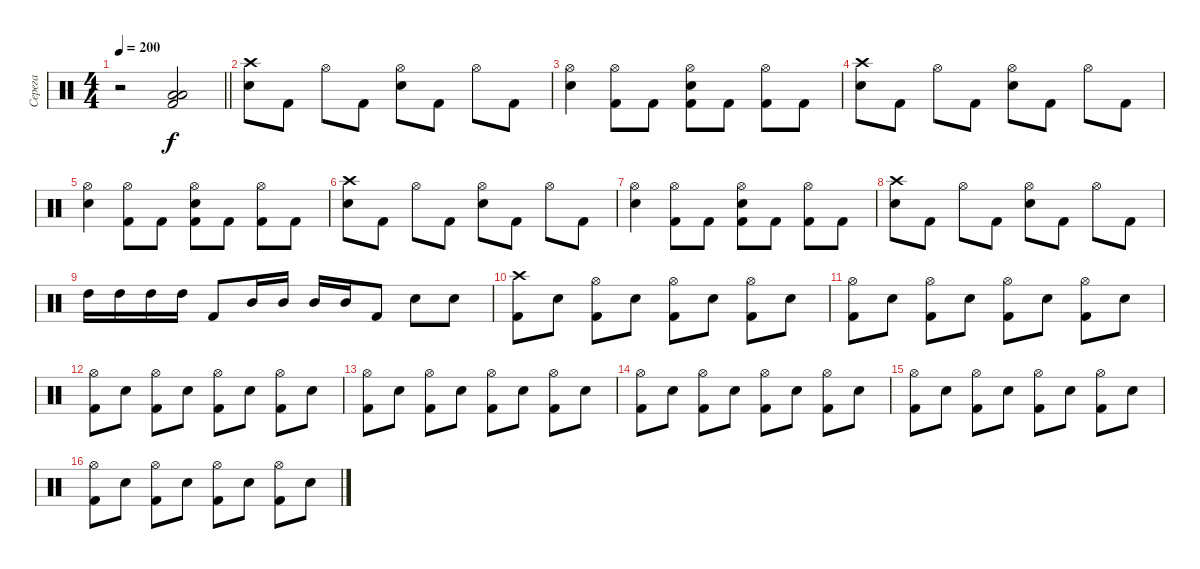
\track ("Серега" "Серега") {instrument percussion}
\staff {score}
\articulation defaults
\ts (4 4)
\tempo 200
\clef neutral
\barLineRight lightlight
\ks c
r.2{dy f} ("Low Tom (hit)" "Low Floor Tom (hit)" "Kick (hit) 2").2 |
("Crash high (hit)" "Electric Snare (hit)").8 "Kick (hit) 2".8 "Hi-Hat (open)".8 "Kick (hit) 2".8 ("Hi-Hat (open)" "Electric Snare (hit)").8 "Kick (hit) 2".8 "Hi-Hat (open)".8 "Kick (hit) 2".8 |
("Hi-Hat (open)" "Electric Snare (hit)").4 ("Hi-Hat (open)" "Kick (hit) 2").8 "Kick (hit) 2".8 ("Hi-Hat (open)" "Electric Snare (hit)" "Kick (hit) 2").8 "Kick (hit) 2".8 ("Hi-Hat (open)" "Kick (hit) 2").8 "Kick (hit) 2".8 |
("Crash high (hit)" "Electric Snare (hit)").8 "Kick (hit) 2".8 "Hi-Hat (open)".8 "Kick (hit) 2".8 ("Hi-Hat (open)" "Electric Snare (hit)").8 "Kick (hit) 2".8 "Hi-Hat (open)".8 "Kick (hit) 2".8 |
("Hi-Hat (open)" "Electric Snare (hit)").4 ("Hi-Hat (open)" "Kick (hit) 2").8 "Kick (hit) 2".8 ("Hi-Hat (open)" "Electric Snare (hit)" "Kick (hit) 2").8 "Kick (hit) 2".8 ("Hi-Hat (open)" "Kick (hit) 2").8 "Kick (hit) 2".8 |
("Crash high (hit)" "Electric Snare (hit)").8 "Kick (hit) 2".8 "Hi-Hat (open)".8 "Kick (hit) 2".8 ("Hi-Hat (open)" "Electric Snare (hit)").8 "Kick (hit) 2".8 "Hi-Hat (open)".8 "Kick (hit) 2".8 |
("Hi-Hat (open)" "Electric Snare (hit)").4 ("Hi-Hat (open)" "Kick (hit) 2").8 "Kick (hit) 2".8 ("Hi-Hat (open)" "Electric Snare (hit)" "Kick (hit) 2").8 "Kick (hit) 2".8 ("Hi-Hat (open)" "Kick (hit) 2").8 "Kick (hit) 2".8 |
("Crash high (hit)" "Electric Snare (hit)").8 "Kick (hit) 2".8 "Hi-Hat (open)".8 "Kick (hit) 2".8 ("Hi-Hat (open)" "Electric Snare (hit)").8 "Kick (hit) 2".8 "Hi-Hat (open)".8 "Kick (hit) 2".8 |
"High Tom (hit)".16 "High Tom (hit)".16 "High Tom (hit)".16 "High Tom (hit)".16 "Kick (hit) 2".8 "Mid Tom (hit)".16 "Mid Tom (hit)".16 "Mid Tom (hit)".16 "Mid Tom (hit)".16 "Kick (hit) 2".8 "Electric Snare (hit)".8 "Electric Snare (hit)".8 |
("Crash high (hit)" "Kick (hit) 2").8 "Electric Snare (hit)".8 ("Hi-Hat (open)" "Kick (hit) 2").8 "Electric Snare (hit)".8 ("Hi-Hat (open)" "Kick (hit) 2").8 "Electric Snare (hit)".8 ("Hi-Hat (open)" "Kick (hit) 2").8 "Electric Snare (hit)".8 |
("Hi-Hat (open)" "Kick (hit) 2").8 "Electric Snare (hit)".8 ("Hi-Hat (open)" "Kick (hit) 2").8 "Electric Snare (hit)".8 ("Hi-Hat (open)" "Kick (hit) 2").8 "Electric Snare (hit)".8 ("Hi-Hat (open)" "Kick (hit) 2").8 "Electric Snare (hit)".8 |
("Hi-Hat (open)" "Kick (hit) 2").8 "Electric Snare (hit)".8 ("Hi-Hat (open)" "Kick (hit) 2").8 "Electric Snare (hit)".8 ("Hi-Hat (open)" "Kick (hit) 2").8 "Electric Snare (hit)".8 ("Hi-Hat (open)" "Kick (hit) 2").8 "Electric Snare (hit)".8 |
("Hi-Hat (open)" "Kick (hit) 2").8 "Electric Snare (hit)".8 ("Hi-Hat (open)" "Kick (hit) 2").8 "Electric Snare (hit)".8 ("Hi-Hat (open)" "Kick (hit) 2").8 "Electric Snare (hit)".8 ("Hi-Hat (open)" "Kick (hit) 2").8 "Electric Snare (hit)".8 |
("Hi-Hat (open)" "Kick (hit) 2").8 "Electric Snare (hit)".8 ("Hi-Hat (open)" "Kick (hit) 2").8 "Electric Snare (hit)".8 ("Hi-Hat (open)" "Kick (hit) 2").8 "Electric Snare (hit)".8 ("Hi-Hat (open)" "Kick (hit) 2").8 "Electric Snare (hit)".8 |
("Hi-Hat (open)" "Kick (hit) 2").8 "Electric Snare (hit)".8 ("Hi-Hat (open)" "Kick (hit) 2").8 "Electric Snare (hit)".8 ("Hi-Hat (open)" "Kick (hit) 2").8 "Electric Snare (hit)".8 ("Hi-Hat (open)" "Kick (hit) 2").8 "Electric Snare (hit)".8 |
("Hi-Hat (open)" "Kick (hit) 2").8 "Electric Snare (hit)".8 ("Hi-Hat (open)" "Kick (hit) 2").8 "Electric Snare (hit)".8 ("Hi-Hat (open)" "Kick (hit) 2").8 "Electric Snare (hit)".8 ("Hi-Hat (open)" "Kick (hit) 2").8 "Electric Snare (hit)".8
